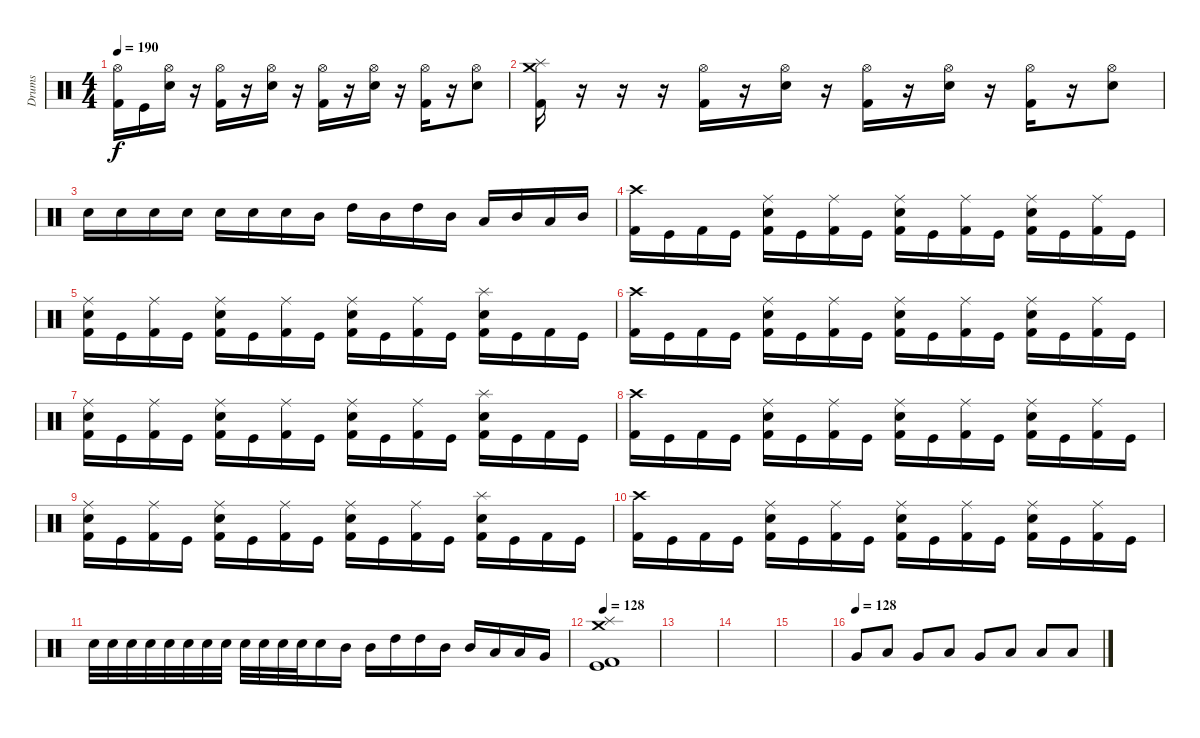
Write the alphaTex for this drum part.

\track ("Drums" "Drums") {instrument percussion}
\staff {score}
\articulation defaults
\ts (4 4)
\tempo 190
\clef neutral
\ks c
("Hi-Hat (open)" "Kick (hit) 2").16{dy f} "Kick (hit)".16 ("Hi-Hat (open)" "Electric Snare (hit)").16 r.16 ("Hi-Hat (open)" "Kick (hit) 2").16 r.16 ("Hi-Hat (open)" "Electric Snare (hit)").16 r.16 ("Hi-Hat (open)" "Kick (hit) 2").16 r.16 ("Hi-Hat (open)" "Electric Snare (hit)").16 r.16 ("Hi-Hat (open)" "Kick (hit) 2").16 r.16 ("Hi-Hat (open)" "Electric Snare (hit)").8 |
("Splash (hit)" "Crash medium (hit)" "Kick (hit) 2").16 r.16 r.16 r.16 ("Hi-Hat (open)" "Kick (hit) 2").16 r.16 ("Hi-Hat (open)" "Electric Snare (hit)").16 r.16 ("Hi-Hat (open)" "Kick (hit) 2").16 r.16 ("Hi-Hat (open)" "Electric Snare (hit)").16 r.16 ("Hi-Hat (open)" "Kick (hit) 2").16 r.16 ("Hi-Hat (open)" "Electric Snare (hit)").8 |
"Electric Snare (hit)".16 "Electric Snare (hit)".16 "Electric Snare (hit)".16 "Electric Snare (hit)".16 "Electric Snare (hit)".16 "Electric Snare (hit)".16 "Electric Snare (hit)".16 "Mid Tom (hit)".16 "High Tom (hit)".16 "Mid Tom (hit)".16 "High Tom (hit)".16 "Mid Tom (hit)".16 "Low Tom (hit)".16 "Mid Tom (hit)".16 "Low Tom (hit)".16 "Mid Tom (hit)".16 |
("Crash high (hit)" "Kick (hit) 2").16 "Kick (hit)".16 "Kick (hit) 2".16 "Kick (hit)".16 ("Ride (middle)" "Electric Snare (hit)" "Kick (hit) 2").16 "Kick (hit)".16 ("Ride (middle)" "Kick (hit) 2").16 "Kick (hit)".16 ("Ride (middle)" "Electric Snare (hit)" "Kick (hit) 2").16 "Kick (hit)".16 ("Ride (middle)" "Kick (hit) 2").16 "Kick (hit)".16 ("Ride (middle)" "Electric Snare (hit)" "Kick (hit) 2").16 "Kick (hit)".16 ("Ride (middle)" "Kick (hit) 2").16 "Kick (hit)".16 |
("Ride (middle)" "Electric Snare (hit)" "Kick (hit) 2").16 "Kick (hit)".16 ("Ride (middle)" "Kick (hit) 2").16 "Kick (hit)".16 ("Ride (middle)" "Electric Snare (hit)" "Kick (hit) 2").16 "Kick (hit)".16 ("Ride (middle)" "Kick (hit) 2").16 "Kick (hit)".16 ("Ride (middle)" "Electric Snare (hit)" "Kick (hit) 2").16 "Kick (hit)".16 ("Ride (middle)" "Kick (hit) 2").16 "Kick (hit)".16 ("Splash (hit)" "Electric Snare (hit)" "Kick (hit) 2").16 "Kick (hit)".16 "Kick (hit) 2".16 "Kick (hit)".16 |
("Crash high (hit)" "Kick (hit) 2").16 "Kick (hit)".16 "Kick (hit) 2".16 "Kick (hit)".16 ("Ride (middle)" "Electric Snare (hit)" "Kick (hit) 2").16 "Kick (hit)".16 ("Ride (middle)" "Kick (hit) 2").16 "Kick (hit)".16 ("Ride (middle)" "Electric Snare (hit)" "Kick (hit) 2").16 "Kick (hit)".16 ("Ride (middle)" "Kick (hit) 2").16 "Kick (hit)".16 ("Ride (middle)" "Electric Snare (hit)" "Kick (hit) 2").16 "Kick (hit)".16 ("Ride (middle)" "Kick (hit) 2").16 "Kick (hit)".16 |
("Ride (middle)" "Electric Snare (hit)" "Kick (hit) 2").16 "Kick (hit)".16 ("Ride (middle)" "Kick (hit) 2").16 "Kick (hit)".16 ("Ride (middle)" "Electric Snare (hit)" "Kick (hit) 2").16 "Kick (hit)".16 ("Ride (middle)" "Kick (hit) 2").16 "Kick (hit)".16 ("Ride (middle)" "Electric Snare (hit)" "Kick (hit) 2").16 "Kick (hit)".16 ("Ride (middle)" "Kick (hit) 2").16 "Kick (hit)".16 ("Splash (hit)" "Electric Snare (hit)" "Kick (hit) 2").16 "Kick (hit)".16 "Kick (hit) 2".16 "Kick (hit)".16 |
("Crash high (hit)" "Kick (hit) 2").16 "Kick (hit)".16 "Kick (hit) 2".16 "Kick (hit)".16 ("Ride (middle)" "Electric Snare (hit)" "Kick (hit) 2").16 "Kick (hit)".16 ("Ride (middle)" "Kick (hit) 2").16 "Kick (hit)".16 ("Ride (middle)" "Electric Snare (hit)" "Kick (hit) 2").16 "Kick (hit)".16 ("Ride (middle)" "Kick (hit) 2").16 "Kick (hit)".16 ("Ride (middle)" "Electric Snare (hit)" "Kick (hit) 2").16 "Kick (hit)".16 ("Ride (middle)" "Kick (hit) 2").16 "Kick (hit)".16 |
("Ride (middle)" "Electric Snare (hit)" "Kick (hit) 2").16 "Kick (hit)".16 ("Ride (middle)" "Kick (hit) 2").16 "Kick (hit)".16 ("Ride (middle)" "Electric Snare (hit)" "Kick (hit) 2").16 "Kick (hit)".16 ("Ride (middle)" "Kick (hit) 2").16 "Kick (hit)".16 ("Ride (middle)" "Electric Snare (hit)" "Kick (hit) 2").16 "Kick (hit)".16 ("Ride (middle)" "Kick (hit) 2").16 "Kick (hit)".16 ("Splash (hit)" "Electric Snare (hit)" "Kick (hit) 2").16 "Kick (hit)".16 "Kick (hit) 2".16 "Kick (hit)".16 |
("Crash high (hit)" "Kick (hit) 2").16 "Kick (hit)".16 "Kick (hit) 2".16 "Kick (hit)".16 ("Ride (middle)" "Electric Snare (hit)" "Kick (hit) 2").16 "Kick (hit)".16 ("Ride (middle)" "Kick (hit) 2").16 "Kick (hit)".16 ("Ride (middle)" "Electric Snare (hit)" "Kick (hit) 2").16 "Kick (hit)".16 ("Ride (middle)" "Kick (hit) 2").16 "Kick (hit)".16 ("Ride (middle)" "Electric Snare (hit)" "Kick (hit) 2").16 "Kick (hit)".16 ("Ride (middle)" "Kick (hit) 2").16 "Kick (hit)".16 |
"Electric Snare (hit)".32 "Electric Snare (hit)".32 "Electric Snare (hit)".32 "Electric Snare (hit)".32 "Electric Snare (hit)".32 "Electric Snare (hit)".32 "Electric Snare (hit)".32 "Electric Snare (hit)".32 "Electric Snare (hit)".32 "Electric Snare (hit)".32 "Electric Snare (hit)".32 "Electric Snare (hit)".32 "Electric Snare (hit)".16 "Mid Tom (hit)".16 "Mid Tom (hit)".16 "High Tom (hit)".16 "High Tom (hit)".16 "Mid Tom (hit)".16 "Mid Tom (hit)".16 "Low Tom (hit)".16 "Low Tom (hit)".16 "Very Low Tom (hit)".16 |
\tempo 125
\tempo 128
("Crash medium (hit)" "Splash (hit)" "Kick (hit)" "Kick (hit) 2").1 |
|
|
|
\tempo (128)
"Very Low Tom (hit)".8{volume 16} "Low Floor Tom (hit)".8 "Very Low Tom (hit)".8 "Low Floor Tom (hit)".8 "Very Low Tom (hit)".8 "Low Floor Tom (hit)".8 "Low Floor Tom (hit)".8 "Low Floor Tom (hit)".8
